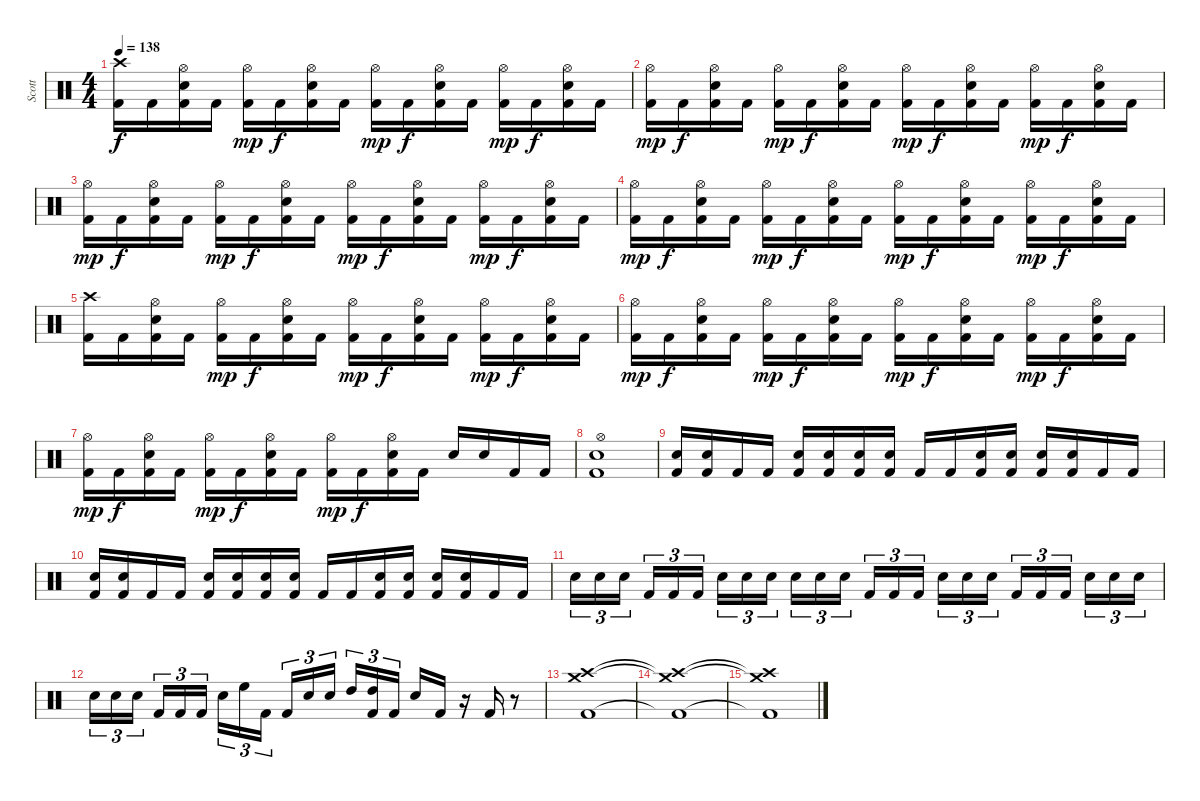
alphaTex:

\track ("Scott" "Scott") {instrument percussion}
\staff {score}
\articulation defaults
\ts (4 4)
\tempo 138
\clef neutral
\ks c
("Crash high (hit)" "Kick (hit) 2").16{dy f} "Kick (hit) 2".16 ("Hi-Hat (open)" "Electric Snare (hit)" "Kick (hit) 2").16 "Kick (hit) 2".16 ("Hi-Hat (open)" "Kick (hit) 2").16{dy mp} "Kick (hit) 2".16{dy f} ("Hi-Hat (open)" "Electric Snare (hit)" "Kick (hit) 2").16 "Kick (hit) 2".16 ("Hi-Hat (open)" "Kick (hit) 2").16{dy mp} "Kick (hit) 2".16{dy f} ("Hi-Hat (open)" "Electric Snare (hit)" "Kick (hit) 2").16 "Kick (hit) 2".16 ("Hi-Hat (open)" "Kick (hit) 2").16{dy mp} "Kick (hit) 2".16{dy f} ("Hi-Hat (open)" "Electric Snare (hit)" "Kick (hit) 2").16 "Kick (hit) 2".16 |
("Hi-Hat (open)" "Kick (hit) 2").16{dy mp} "Kick (hit) 2".16{dy f} ("Hi-Hat (open)" "Electric Snare (hit)" "Kick (hit) 2").16 "Kick (hit) 2".16 ("Hi-Hat (open)" "Kick (hit) 2").16{dy mp} "Kick (hit) 2".16{dy f} ("Hi-Hat (open)" "Electric Snare (hit)" "Kick (hit) 2").16 "Kick (hit) 2".16 ("Hi-Hat (open)" "Kick (hit) 2").16{dy mp} "Kick (hit) 2".16{dy f} ("Hi-Hat (open)" "Electric Snare (hit)" "Kick (hit) 2").16 "Kick (hit) 2".16 ("Hi-Hat (open)" "Kick (hit) 2").16{dy mp} "Kick (hit) 2".16{dy f} ("Hi-Hat (open)" "Electric Snare (hit)" "Kick (hit) 2").16 "Kick (hit) 2".16 |
("Hi-Hat (open)" "Kick (hit) 2").16{dy mp} "Kick (hit) 2".16{dy f} ("Hi-Hat (open)" "Electric Snare (hit)" "Kick (hit) 2").16 "Kick (hit) 2".16 ("Hi-Hat (open)" "Kick (hit) 2").16{dy mp} "Kick (hit) 2".16{dy f} ("Hi-Hat (open)" "Electric Snare (hit)" "Kick (hit) 2").16 "Kick (hit) 2".16 ("Hi-Hat (open)" "Kick (hit) 2").16{dy mp} "Kick (hit) 2".16{dy f} ("Hi-Hat (open)" "Electric Snare (hit)" "Kick (hit) 2").16 "Kick (hit) 2".16 ("Hi-Hat (open)" "Kick (hit) 2").16{dy mp} "Kick (hit) 2".16{dy f} ("Hi-Hat (open)" "Electric Snare (hit)" "Kick (hit) 2").16 "Kick (hit) 2".16 |
("Hi-Hat (open)" "Kick (hit) 2").16{dy mp} "Kick (hit) 2".16{dy f} ("Hi-Hat (open)" "Electric Snare (hit)" "Kick (hit) 2").16 "Kick (hit) 2".16 ("Hi-Hat (open)" "Kick (hit) 2").16{dy mp} "Kick (hit) 2".16{dy f} ("Hi-Hat (open)" "Electric Snare (hit)" "Kick (hit) 2").16 "Kick (hit) 2".16 ("Hi-Hat (open)" "Kick (hit) 2").16{dy mp} "Kick (hit) 2".16{dy f} ("Hi-Hat (open)" "Electric Snare (hit)" "Kick (hit) 2").16 "Kick (hit) 2".16 ("Hi-Hat (open)" "Kick (hit) 2").16{dy mp} "Kick (hit) 2".16{dy f} ("Hi-Hat (open)" "Electric Snare (hit)" "Kick (hit) 2").16 "Kick (hit) 2".16 |
("Crash high (hit)" "Kick (hit) 2").16 "Kick (hit) 2".16 ("Hi-Hat (open)" "Electric Snare (hit)" "Kick (hit) 2").16 "Kick (hit) 2".16 ("Hi-Hat (open)" "Kick (hit) 2").16{dy mp} "Kick (hit) 2".16{dy f} ("Hi-Hat (open)" "Electric Snare (hit)" "Kick (hit) 2").16 "Kick (hit) 2".16 ("Hi-Hat (open)" "Kick (hit) 2").16{dy mp} "Kick (hit) 2".16{dy f} ("Hi-Hat (open)" "Electric Snare (hit)" "Kick (hit) 2").16 "Kick (hit) 2".16 ("Hi-Hat (open)" "Kick (hit) 2").16{dy mp} "Kick (hit) 2".16{dy f} ("Hi-Hat (open)" "Electric Snare (hit)" "Kick (hit) 2").16 "Kick (hit) 2".16 |
("Hi-Hat (open)" "Kick (hit) 2").16{dy mp} "Kick (hit) 2".16{dy f} ("Hi-Hat (open)" "Electric Snare (hit)" "Kick (hit) 2").16 "Kick (hit) 2".16 ("Hi-Hat (open)" "Kick (hit) 2").16{dy mp} "Kick (hit) 2".16{dy f} ("Hi-Hat (open)" "Electric Snare (hit)" "Kick (hit) 2").16 "Kick (hit) 2".16 ("Hi-Hat (open)" "Kick (hit) 2").16{dy mp} "Kick (hit) 2".16{dy f} ("Hi-Hat (open)" "Electric Snare (hit)" "Kick (hit) 2").16 "Kick (hit) 2".16 ("Hi-Hat (open)" "Kick (hit) 2").16{dy mp} "Kick (hit) 2".16{dy f} ("Hi-Hat (open)" "Electric Snare (hit)" "Kick (hit) 2").16 "Kick (hit) 2".16 |
("Hi-Hat (open)" "Kick (hit) 2").16{dy mp} "Kick (hit) 2".16{dy f} ("Hi-Hat (open)" "Electric Snare (hit)" "Kick (hit) 2").16 "Kick (hit) 2".16 ("Hi-Hat (open)" "Kick (hit) 2").16{dy mp} "Kick (hit) 2".16{dy f} ("Hi-Hat (open)" "Electric Snare (hit)" "Kick (hit) 2").16 "Kick (hit) 2".16 ("Hi-Hat (open)" "Kick (hit) 2").16{dy mp} "Kick (hit) 2".16{dy f} ("Hi-Hat (open)" "Electric Snare (hit)" "Kick (hit) 2").16 "Kick (hit) 2".16 "Electric Snare (hit)".16 "Electric Snare (hit)".16 "Kick (hit) 2".16 "Kick (hit) 2".16 |
("Hi-Hat (open)" "Electric Snare (hit)" "Kick (hit) 2").1 |
("Electric Snare (hit)" "Kick (hit) 2").16 ("Electric Snare (hit)" "Kick (hit) 2").16 "Kick (hit) 2".16 "Kick (hit) 2".16 ("Electric Snare (hit)" "Kick (hit) 2").16 ("Electric Snare (hit)" "Kick (hit) 2").16 ("Electric Snare (hit)" "Kick (hit) 2").16 ("Electric Snare (hit)" "Kick (hit) 2").16 "Kick (hit) 2".16 "Kick (hit) 2".16 ("Electric Snare (hit)" "Kick (hit) 2").16 ("Electric Snare (hit)" "Kick (hit) 2").16 ("Electric Snare (hit)" "Kick (hit) 2").16 ("Electric Snare (hit)" "Kick (hit) 2").16 "Kick (hit) 2".16 "Kick (hit) 2".16 |
("Electric Snare (hit)" "Kick (hit) 2").16 ("Electric Snare (hit)" "Kick (hit) 2").16 "Kick (hit) 2".16 "Kick (hit) 2".16 ("Electric Snare (hit)" "Kick (hit) 2").16 ("Electric Snare (hit)" "Kick (hit) 2").16 ("Electric Snare (hit)" "Kick (hit) 2").16 ("Electric Snare (hit)" "Kick (hit) 2").16 "Kick (hit) 2".16 "Kick (hit) 2".16 ("Electric Snare (hit)" "Kick (hit) 2").16 ("Electric Snare (hit)" "Kick (hit) 2").16 ("Electric Snare (hit)" "Kick (hit) 2").16 ("Electric Snare (hit)" "Kick (hit) 2").16 "Kick (hit) 2".16 "Kick (hit) 2".16 |
"Electric Snare (hit)".16{tu (3 2)} "Electric Snare (hit)".16{tu (3 2)} "Electric Snare (hit)".16{tu (3 2)} "Kick (hit) 2".16{tu (3 2)} "Kick (hit) 2".16{tu (3 2)} "Kick (hit) 2".16{tu (3 2)} "Electric Snare (hit)".16{tu (3 2)} "Electric Snare (hit)".16{tu (3 2)} "Electric Snare (hit)".16{tu (3 2)} "Electric Snare (hit)".16{tu (3 2)} "Electric Snare (hit)".16{tu (3 2)} "Electric Snare (hit)".16{tu (3 2)} "Kick (hit) 2".16{tu (3 2)} "Kick (hit) 2".16{tu (3 2)} "Kick (hit) 2".16{tu (3 2)} "Electric Snare (hit)".16{tu (3 2)} "Electric Snare (hit)".16{tu (3 2)} "Electric Snare (hit)".16{tu (3 2)} "Kick (hit) 2".16{tu (3 2)} "Kick (hit) 2".16{tu (3 2)} "Kick (hit) 2".16{tu (3 2)} "Electric Snare (hit)".16{tu (3 2)} "Electric Snare (hit)".16{tu (3 2)} "Electric Snare (hit)".16{tu (3 2)} |
"Electric Snare (hit)".16{tu (3 2)} "Electric Snare (hit)".16{tu (3 2)} "Electric Snare (hit)".16{tu (3 2)} "Kick (hit) 2".16{tu (3 2)} "Kick (hit) 2".16{tu (3 2)} "Kick (hit) 2".16{tu (3 2)} "Electric Snare (hit)".16{tu (3 2)} "High Floor Tom (hit)".16{tu (3 2)} "Kick (hit) 2".16{tu (3 2)} "Kick (hit) 2".16{tu (3 2)} "Electric Snare (hit)".16{tu (3 2)} "Electric Snare (hit)".16{tu (3 2)} "High Tom (hit)".16{tu (3 2)} ("High Tom (hit)" "Kick (hit) 2").16{tu (3 2)} "Kick (hit) 2".16{tu (3 2)} "Electric Snare (hit)".16 "Kick (hit) 2".16 r.16 "Kick (hit) 2".16 r.8 |
("Crash high (hit)" "Crash medium (hit)" "Kick (hit) 2").1 |
("Crash high (hit)"{t} "Crash medium (hit)"{t} "Kick (hit) 2"{t}).1 |
("Crash high (hit)"{t} "Crash medium (hit)"{t} "Kick (hit) 2"{t}).1
